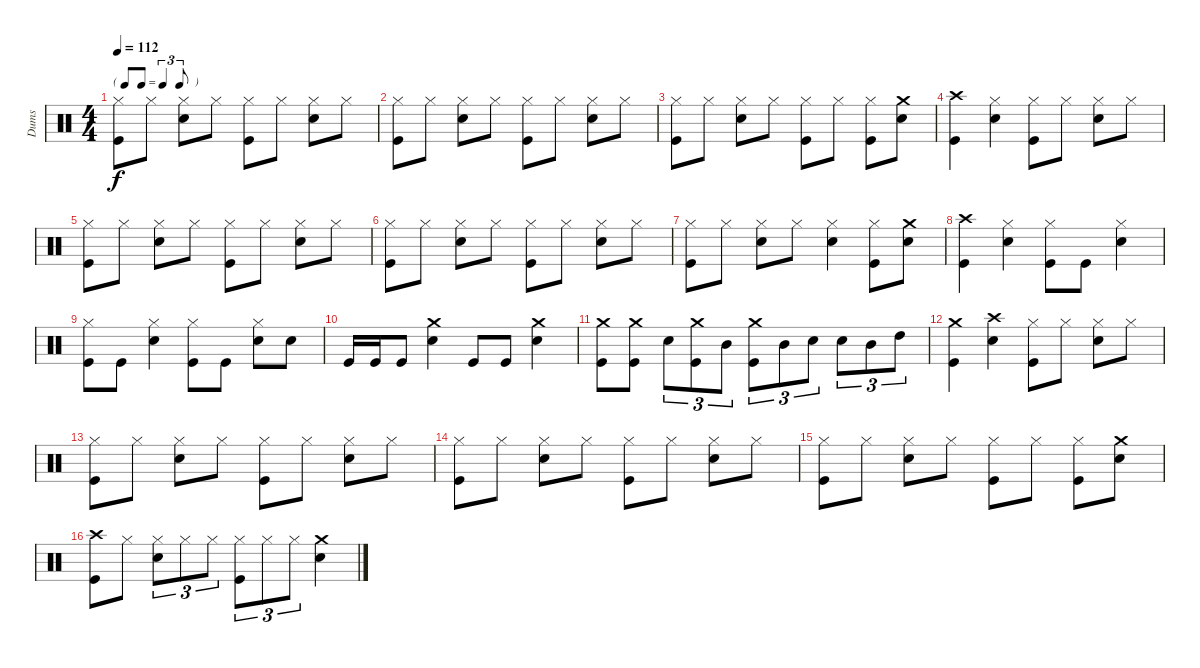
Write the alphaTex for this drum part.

\track ("Dums" "Dums") {instrument percussion}
\staff {score}
\articulation defaults
\ts (4 4)
\tf triplet8th
\tempo 112
\clef neutral
\ks c
("Kick (hit)" "Hi-Hat (closed)").8{dy f} "Hi-Hat (closed)".8 ("Electric Snare (hit)" "Hi-Hat (closed)").8 "Hi-Hat (closed)".8 ("Kick (hit)" "Hi-Hat (closed)").8 "Hi-Hat (closed)".8 ("Electric Snare (hit)" "Hi-Hat (closed)").8 "Hi-Hat (closed)".8 |
("Kick (hit)" "Hi-Hat (closed)").8 "Hi-Hat (closed)".8 ("Electric Snare (hit)" "Hi-Hat (closed)").8 "Hi-Hat (closed)".8 ("Kick (hit)" "Hi-Hat (closed)").8 "Hi-Hat (closed)".8 ("Electric Snare (hit)" "Hi-Hat (closed)").8 "Hi-Hat (closed)".8 |
("Kick (hit)" "Hi-Hat (closed)").8 "Hi-Hat (closed)".8 ("Electric Snare (hit)" "Hi-Hat (closed)").8 "Hi-Hat (closed)".8 ("Kick (hit)" "Hi-Hat (closed)").8 "Hi-Hat (closed)".8 ("Kick (hit)" "Hi-Hat (closed)").8 ("Electric Snare (hit)" "Crash medium (hit)").8 |
("Kick (hit)" "Crash high (hit)").4 ("Electric Snare (hit)" "Hi-Hat (closed)").4 ("Kick (hit)" "Hi-Hat (closed)").8 "Hi-Hat (closed)".8 ("Electric Snare (hit)" "Hi-Hat (closed)").8 "Hi-Hat (closed)".8 |
("Kick (hit)" "Hi-Hat (closed)").8 "Hi-Hat (closed)".8 ("Electric Snare (hit)" "Hi-Hat (closed)").8 "Hi-Hat (closed)".8 ("Kick (hit)" "Hi-Hat (closed)").8 "Hi-Hat (closed)".8 ("Electric Snare (hit)" "Hi-Hat (closed)").8 "Hi-Hat (closed)".8 |
("Kick (hit)" "Hi-Hat (closed)").8 "Hi-Hat (closed)".8 ("Electric Snare (hit)" "Hi-Hat (closed)").8 "Hi-Hat (closed)".8 ("Kick (hit)" "Hi-Hat (closed)").8 "Hi-Hat (closed)".8 ("Electric Snare (hit)" "Hi-Hat (closed)").8 "Hi-Hat (closed)".8 |
("Kick (hit)" "Hi-Hat (closed)").8 "Hi-Hat (closed)".8 ("Electric Snare (hit)" "Hi-Hat (closed)").8 "Hi-Hat (closed)".8 ("Electric Snare (hit)" "Hi-Hat (closed)").4 ("Kick (hit)" "Hi-Hat (closed)").8 ("Electric Snare (hit)" "Crash medium (hit)").8 |
("Kick (hit)" "Crash high (hit)").4 ("Electric Snare (hit)" "Hi-Hat (closed)").4 ("Kick (hit)" "Hi-Hat (closed)").8 "Kick (hit)".8 ("Electric Snare (hit)" "Hi-Hat (closed)").4 |
("Kick (hit)" "Hi-Hat (closed)").8 "Kick (hit)".8 ("Electric Snare (hit)" "Hi-Hat (closed)").4 ("Kick (hit)" "Hi-Hat (closed)").8 "Kick (hit)".8 ("Electric Snare (hit)" "Hi-Hat (closed)").8 "Electric Snare (hit)".8 |
"Kick (hit)".16 "Kick (hit)".16 "Kick (hit)".8 ("Electric Snare (hit)" "Crash medium (hit)").4 "Kick (hit)".8 "Kick (hit)".8 ("Electric Snare (hit)" "Crash medium (hit)").4 |
("Kick (hit)" "Crash medium (hit)").8 ("Kick (hit)" "Crash medium (hit)").8 "Electric Snare (hit)".8{tu (3 2)} ("Kick (hit)" "Crash medium (hit)").8{tu (3 2)} "Mid Tom (hit)".8{tu (3 2)} ("Kick (hit)" "Crash medium (hit)").8{tu (3 2)} "Mid Tom (hit)".8{tu (3 2)} "Electric Snare (hit)".8{tu (3 2)} "Electric Snare (hit)".8{tu (3 2)} "Mid Tom (hit)".8{tu (3 2)} "High Tom (hit)".8{tu (3 2)} |
("Kick (hit)" "Crash medium (hit)").4 ("Electric Snare (hit)" "Crash high (hit)").4 ("Kick (hit)" "Hi-Hat (closed)").8 "Hi-Hat (closed)".8 ("Electric Snare (hit)" "Hi-Hat (closed)").8 "Hi-Hat (closed)".8 |
("Kick (hit)" "Hi-Hat (closed)").8 "Hi-Hat (closed)".8 ("Electric Snare (hit)" "Hi-Hat (closed)").8 "Hi-Hat (closed)".8 ("Kick (hit)" "Hi-Hat (closed)").8 "Hi-Hat (closed)".8 ("Electric Snare (hit)" "Hi-Hat (closed)").8 "Hi-Hat (closed)".8 |
("Kick (hit)" "Hi-Hat (closed)").8 "Hi-Hat (closed)".8 ("Electric Snare (hit)" "Hi-Hat (closed)").8 "Hi-Hat (closed)".8 ("Kick (hit)" "Hi-Hat (closed)").8 "Hi-Hat (closed)".8 ("Electric Snare (hit)" "Hi-Hat (closed)").8 "Hi-Hat (closed)".8 |
("Kick (hit)" "Hi-Hat (closed)").8 "Hi-Hat (closed)".8 ("Electric Snare (hit)" "Hi-Hat (closed)").8 "Hi-Hat (closed)".8 ("Kick (hit)" "Hi-Hat (closed)").8 "Hi-Hat (closed)".8 ("Kick (hit)" "Hi-Hat (closed)").8 ("Electric Snare (hit)" "Crash medium (hit)").8 |
("Kick (hit)" "Crash high (hit)").8 "Hi-Hat (closed)".8 ("Electric Snare (hit)" "Hi-Hat (closed)").8{tu (3 2)} "Hi-Hat (closed)".8{tu (3 2)} "Hi-Hat (closed)".8{tu (3 2)} ("Kick (hit)" "Hi-Hat (closed)").8{tu (3 2)} "Hi-Hat (closed)".8{tu (3 2)} "Hi-Hat (closed)".8{tu (3 2)} ("Electric Snare (hit)" "Crash medium (hit)").4
